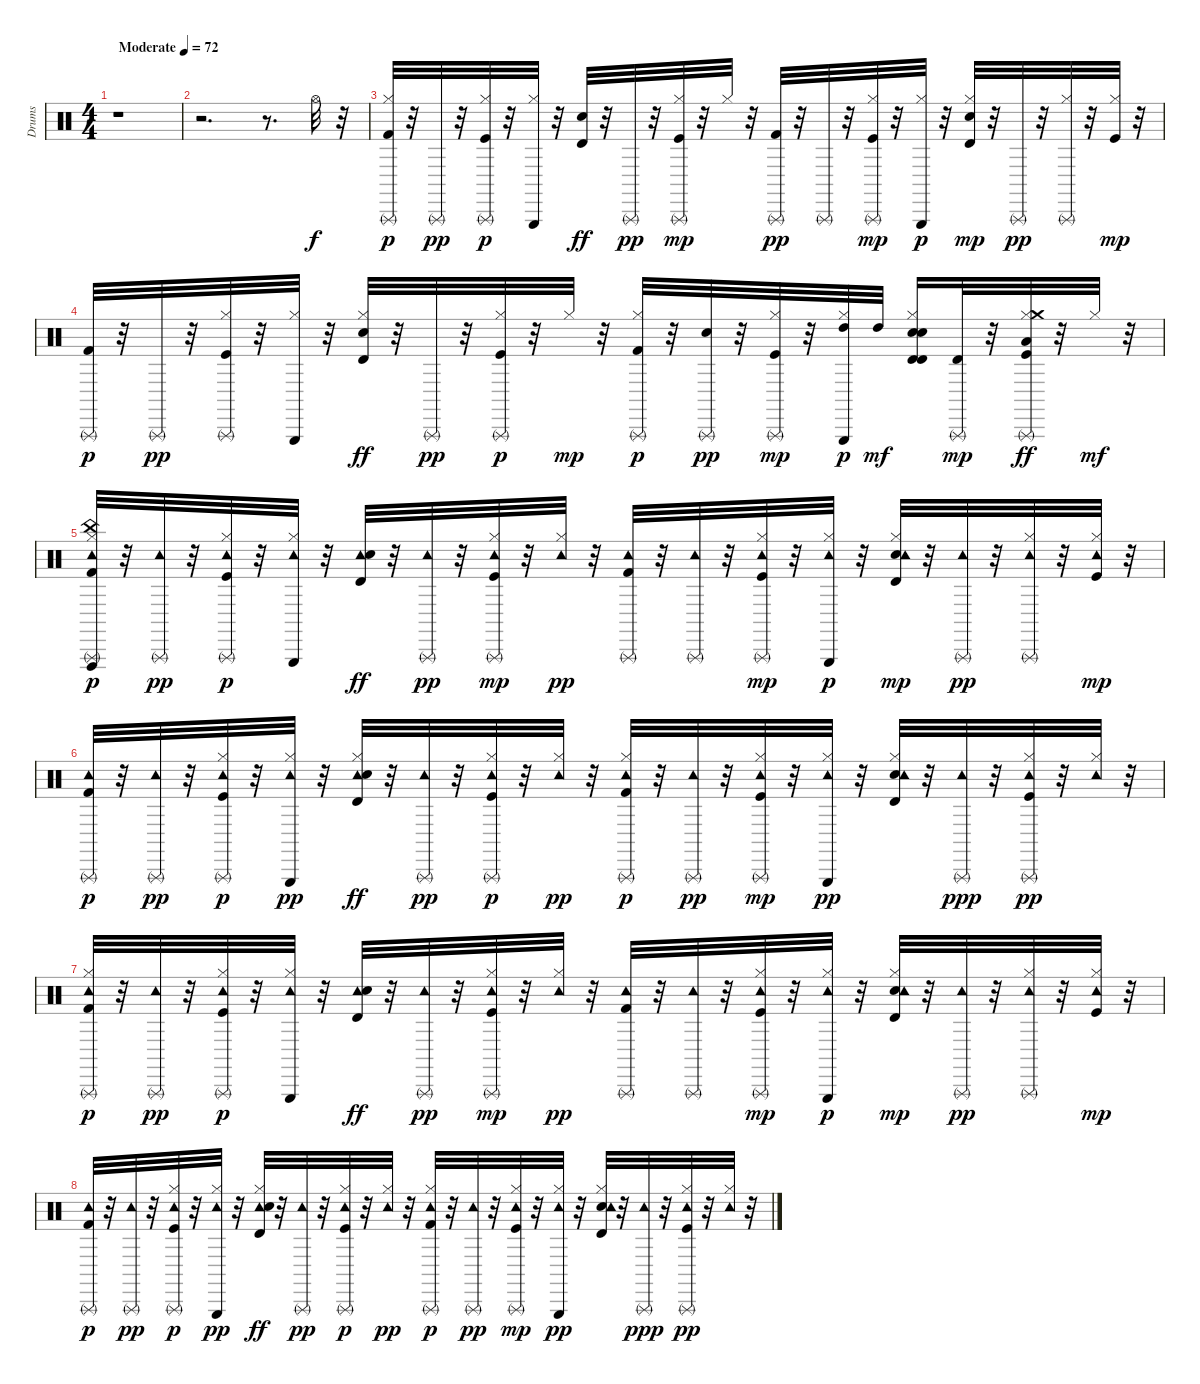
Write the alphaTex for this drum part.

\track ("Drums" "Drums") {instrument percussion}
\staff {score}
\articulation defaults
\ts (4 4)
\tempo (72 "Moderate")
\clef neutral
\ks c
r.1{dy f} |
r.2{d} r.8{d} "Hi-Hat (open)".32 r.32 |
("Hi-Hat (closed)" "Triangle (rnute)" "Kick (hit) 2").32{dy p} r.32 "Triangle (rnute)".32{dy pp} r.32 ("Kick (hit)" "Hi-Hat (closed)" "Triangle (rnute)").32{dy p} r.32 ("Hi-Hat (closed)" "Triangle (hit)").32 r.32 ("Electric Snare (hit)" "Timbale high (hit)").32{dy ff} r.32 "Triangle (rnute)".32{dy pp} r.32 ("Kick (hit)" "Hi-Hat (closed)" "Triangle (rnute)").32{dy mp} r.32 "Hi-Hat (closed)".32 r.32 ("Kick (hit) 2" "Triangle (rnute)").32{dy pp} r.32 "Triangle (rnute)".32 r.32 ("Hi-Hat (closed)" "Triangle (rnute)" "Kick (hit)").32{dy mp} r.32 ("Hi-Hat (closed)" "Triangle (hit)").32{dy p} r.32 ("Timbale high (hit)" "Electric Snare (hit)" "Hi-Hat (closed)").32{dy mp} r.32 "Triangle (rnute)".32{dy pp} r.32 ("Hi-Hat (closed)" "Triangle (rnute)").32 r.32 ("Kick (hit)" "Hi-Hat (closed)").32{dy mp} r.32 |
("Kick (hit) 2" "Triangle (rnute)").32{dy p} r.32 "Triangle (rnute)".32{dy pp} r.32 ("Kick (hit)" "Hi-Hat (closed)" "Triangle (rnute)").32 r.32 ("Hi-Hat (closed)" "Triangle (hit)").32 r.32 ("Hi-Hat (closed)" "Electric Snare (hit)" "Timbale high (hit)").32{dy ff} r.32 "Triangle (rnute)".32{dy pp} r.32 ("Kick (hit)" "Hi-Hat (closed)" "Triangle (rnute)").32{dy p} r.32 "Hi-Hat (closed)".32{dy mp} r.32 ("Hi-Hat (closed)" "Triangle (rnute)" "Kick (hit) 2").32{dy p} r.32 ("Snare (hit) 2" "Triangle (rnute)").32{dy pp} r.32 ("Hi-Hat (closed)" "Triangle (rnute)" "Kick (hit)").32{dy mp} r.32 ("Hi-Hat (closed)" "High Tom (hit)" "Triangle (hit)").32{dy p} "High Tom (hit)".32{dy mf} ("Electric Snare (hit)" "Timbale high (hit)" "Hi-Hat (closed)" "Timbale high (hit)" "Snare (hit) 2").16 ("Triangle (rnute)" "Timbale high (hit)").32{dy mp} r.32 ("Kick (hit)" "Hi-Hat (closed)" "Triangle (rnute)" "Crash medium (hit)" "Low Tom (hit)").32{dy ff} r.32 "Hi-Hat (closed)".32{dy mf} r.32 |
("China (hit)" "Hi-Hat (closed)" "Tambourine (hit)" "Vibraslap (hit)" "Triangle (rnute)" "Kick (hit) 2").32{dy p} r.32 ("Triangle (rnute)" "Tambourine (hit)").32{dy pp} r.32 ("Kick (hit)" "Hi-Hat (closed)" "Tambourine (hit)" "Triangle (rnute)").32{dy p} r.32 ("Hi-Hat (closed)" "Tambourine (hit)" "Triangle (hit)").32 r.32 ("Tambourine (hit)" "Electric Snare (hit)" "Timbale high (hit)").32{dy ff} r.32 ("Triangle (rnute)" "Tambourine (hit)").32{dy pp} r.32 ("Kick (hit)" "Hi-Hat (closed)" "Tambourine (hit)" "Triangle (rnute)").32{dy mp} r.32 ("Hi-Hat (closed)" "Tambourine (hit)").32{dy pp} r.32 ("Tambourine (hit)" "Kick (hit) 2" "Triangle (rnute)").32 r.32 ("Triangle (rnute)" "Tambourine (hit)").32 r.32 ("Hi-Hat (closed)" "Triangle (rnute)" "Tambourine (hit)" "Kick (hit)").32{dy mp} r.32 ("Hi-Hat (closed)" "Tambourine (hit)" "Triangle (hit)").32{dy p} r.32 ("Timbale high (hit)" "Electric Snare (hit)" "Tambourine (hit)" "Hi-Hat (closed)").32{dy mp} r.32 ("Tambourine (hit)" "Triangle (rnute)").32{dy pp} r.32 ("Tambourine (hit)" "Hi-Hat (closed)" "Triangle (rnute)").32 r.32 ("Kick (hit)" "Tambourine (hit)" "Hi-Hat (closed)").32{dy mp} r.32 |
("Kick (hit) 2" "Tambourine (hit)" "Triangle (rnute)").32{dy p} r.32 ("Triangle (rnute)" "Tambourine (hit)").32{dy pp} r.32 ("Kick (hit)" "Hi-Hat (closed)" "Triangle (rnute)" "Tambourine (hit)").32{dy p} r.32 ("Hi-Hat (closed)" "Triangle (hit)" "Tambourine (hit)").32{dy pp} r.32 ("Hi-Hat (closed)" "Tambourine (hit)" "Electric Snare (hit)" "Timbale high (hit)").32{dy ff} r.32 ("Tambourine (hit)" "Triangle (rnute)").32{dy pp} r.32 ("Kick (hit)" "Hi-Hat (closed)" "Tambourine (hit)" "Triangle (rnute)").32{dy p} r.32 ("Hi-Hat (closed)" "Tambourine (hit)").32{dy pp} r.32 ("Hi-Hat (closed)" "Triangle (rnute)" "Tambourine (hit)" "Kick (hit) 2").32{dy p} r.32 ("Triangle (rnute)" "Tambourine (hit)").32{dy pp} r.32 ("Hi-Hat (closed)" "Triangle (rnute)" "Tambourine (hit)" "Kick (hit)").32{dy mp} r.32 ("Hi-Hat (closed)" "Triangle (hit)" "Tambourine (hit)").32{dy pp} r.32 ("Electric Snare (hit)" "Timbale high (hit)" "Hi-Hat (closed)" "Tambourine (hit)").32 r.32 ("Triangle (rnute)" "Tambourine (hit)").32{dy ppp} r.32 ("Kick (hit)" "Hi-Hat (closed)" "Triangle (rnute)" "Tambourine (hit)").32{dy pp} r.32 ("Hi-Hat (closed)" "Tambourine (hit)").32 r.32 |
("Hi-Hat (closed)" "Tambourine (hit)" "Triangle (rnute)" "Kick (hit) 2").32{dy p} r.32 ("Triangle (rnute)" "Tambourine (hit)").32{dy pp} r.32 ("Kick (hit)" "Hi-Hat (closed)" "Tambourine (hit)" "Triangle (rnute)").32{dy p} r.32 ("Hi-Hat (closed)" "Tambourine (hit)" "Triangle (hit)").32 r.32 ("Tambourine (hit)" "Electric Snare (hit)" "Timbale high (hit)").32{dy ff} r.32 ("Triangle (rnute)" "Tambourine (hit)").32{dy pp} r.32 ("Kick (hit)" "Hi-Hat (closed)" "Tambourine (hit)" "Triangle (rnute)").32{dy mp} r.32 ("Hi-Hat (closed)" "Tambourine (hit)").32{dy pp} r.32 ("Tambourine (hit)" "Kick (hit) 2" "Triangle (rnute)").32 r.32 ("Triangle (rnute)" "Tambourine (hit)").32 r.32 ("Hi-Hat (closed)" "Triangle (rnute)" "Tambourine (hit)" "Kick (hit)").32{dy mp} r.32 ("Hi-Hat (closed)" "Tambourine (hit)" "Triangle (hit)").32{dy p} r.32 ("Timbale high (hit)" "Electric Snare (hit)" "Tambourine (hit)" "Hi-Hat (closed)").32{dy mp} r.32 ("Tambourine (hit)" "Triangle (rnute)").32{dy pp} r.32 ("Tambourine (hit)" "Hi-Hat (closed)" "Triangle (rnute)").32 r.32 ("Kick (hit)" "Tambourine (hit)" "Hi-Hat (closed)").32{dy mp} r.32 |
("Kick (hit) 2" "Tambourine (hit)" "Triangle (rnute)").32{dy p} r.32 ("Triangle (rnute)" "Tambourine (hit)").32{dy pp} r.32 ("Kick (hit)" "Hi-Hat (closed)" "Triangle (rnute)" "Tambourine (hit)").32{dy p} r.32 ("Hi-Hat (closed)" "Triangle (hit)" "Tambourine (hit)").32{dy pp} r.32 ("Hi-Hat (closed)" "Tambourine (hit)" "Electric Snare (hit)" "Timbale high (hit)").32{dy ff} r.32 ("Tambourine (hit)" "Triangle (rnute)").32{dy pp} r.32 ("Kick (hit)" "Hi-Hat (closed)" "Tambourine (hit)" "Triangle (rnute)").32{dy p} r.32 ("Hi-Hat (closed)" "Tambourine (hit)").32{dy pp} r.32 ("Hi-Hat (closed)" "Triangle (rnute)" "Tambourine (hit)" "Kick (hit) 2").32{dy p} r.32 ("Triangle (rnute)" "Tambourine (hit)").32{dy pp} r.32 ("Hi-Hat (closed)" "Triangle (rnute)" "Tambourine (hit)" "Kick (hit)").32{dy mp} r.32 ("Hi-Hat (closed)" "Triangle (hit)" "Tambourine (hit)").32{dy pp} r.32 ("Electric Snare (hit)" "Timbale high (hit)" "Hi-Hat (closed)" "Tambourine (hit)").32 r.32 ("Triangle (rnute)" "Tambourine (hit)").32{dy ppp} r.32 ("Kick (hit)" "Hi-Hat (closed)" "Triangle (rnute)" "Tambourine (hit)").32{dy pp} r.32 ("Hi-Hat (closed)" "Tambourine (hit)").32 r.32
